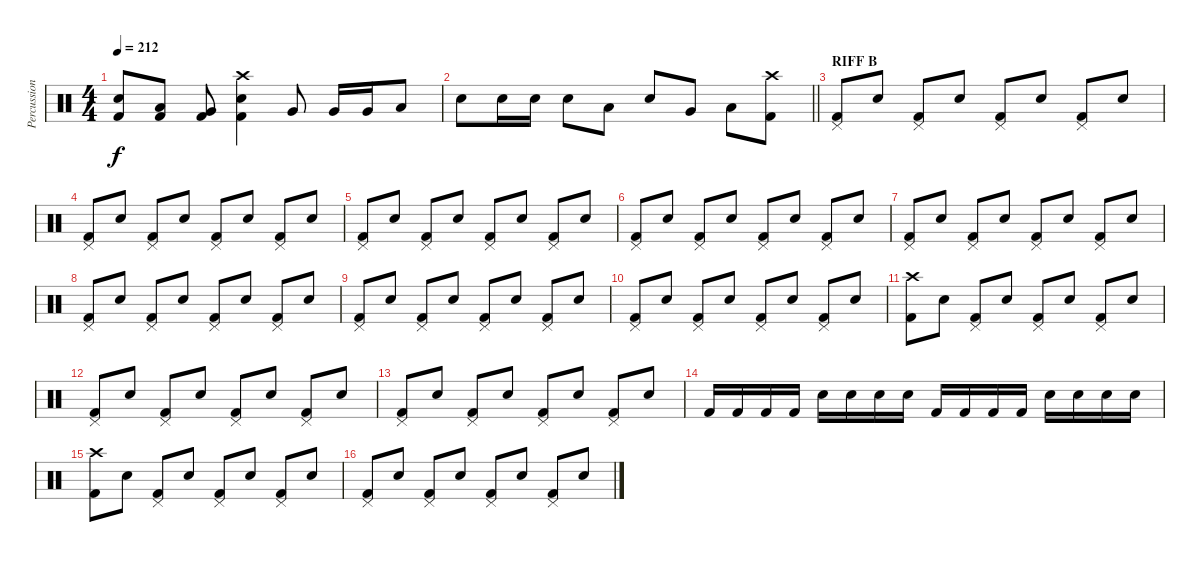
\track ("Percussions" "Percussion") {instrument percussion}
\staff {score}
\articulation defaults
\ts (4 4)
\tempo 212
\clef neutral
\ks c
("Snare (hit) 2" "Kick (hit) 2").8{dy f} ("Low Tom (hit)" "Kick (hit) 2").8 ("Very Low Tom (hit)" "Kick (hit) 2").8 ("Crash high (hit)" "Snare (hit) 2" "Kick (hit) 2").4 "Very Low Tom (hit)".8 "Very Low Tom (hit)".16 "Very Low Tom (hit)".16 "Low Floor Tom (hit)".8 |
\barLineRight lightlight "Snare (hit) 2".8 "Snare (hit) 2".16 "Snare (hit) 2".16 "Snare (hit) 2".8 "Low Tom (hit)".8 "Snare (hit) 2".8 "Very Low Tom (hit)".8 "Low Floor Tom (hit)".8
("Crash high (hit)" "Kick (hit) 2").8 |
\section ("" "RIFF B")
("Pedal Hi-Hat (hit)" "Kick (hit) 2").8 "Snare (hit) 2".8 ("Pedal Hi-Hat (hit)" "Kick (hit) 2").8 "Snare (hit) 2".8 ("Pedal Hi-Hat (hit)" "Kick (hit) 2").8 "Snare (hit) 2".8 ("Pedal Hi-Hat (hit)" "Kick (hit) 2").8 "Snare (hit) 2".8 |
("Pedal Hi-Hat (hit)" "Kick (hit) 2").8 "Snare (hit) 2".8 ("Pedal Hi-Hat (hit)" "Kick (hit) 2").8 "Snare (hit) 2".8 ("Pedal Hi-Hat (hit)" "Kick (hit) 2").8 "Snare (hit) 2".8 ("Pedal Hi-Hat (hit)" "Kick (hit) 2").8 "Snare (hit) 2".8 |
("Pedal Hi-Hat (hit)" "Kick (hit) 2").8 "Snare (hit) 2".8 ("Pedal Hi-Hat (hit)" "Kick (hit) 2").8 "Snare (hit) 2".8 ("Pedal Hi-Hat (hit)" "Kick (hit) 2").8 "Snare (hit) 2".8 ("Pedal Hi-Hat (hit)" "Kick (hit) 2").8 "Snare (hit) 2".8 |
("Pedal Hi-Hat (hit)" "Kick (hit) 2").8 "Snare (hit) 2".8 ("Pedal Hi-Hat (hit)" "Kick (hit) 2").8 "Snare (hit) 2".8 ("Pedal Hi-Hat (hit)" "Kick (hit) 2").8 "Snare (hit) 2".8 ("Pedal Hi-Hat (hit)" "Kick (hit) 2").8 "Snare (hit) 2".8 |
("Pedal Hi-Hat (hit)" "Kick (hit) 2").8 "Snare (hit) 2".8 ("Pedal Hi-Hat (hit)" "Kick (hit) 2").8 "Snare (hit) 2".8 ("Pedal Hi-Hat (hit)" "Kick (hit) 2").8 "Snare (hit) 2".8 ("Pedal Hi-Hat (hit)" "Kick (hit) 2").8 "Snare (hit) 2".8 |
("Pedal Hi-Hat (hit)" "Kick (hit) 2").8 "Snare (hit) 2".8 ("Pedal Hi-Hat (hit)" "Kick (hit) 2").8 "Snare (hit) 2".8 ("Pedal Hi-Hat (hit)" "Kick (hit) 2").8 "Snare (hit) 2".8 ("Pedal Hi-Hat (hit)" "Kick (hit) 2").8 "Snare (hit) 2".8 |
("Pedal Hi-Hat (hit)" "Kick (hit) 2").8 "Snare (hit) 2".8 ("Pedal Hi-Hat (hit)" "Kick (hit) 2").8 "Snare (hit) 2".8 ("Pedal Hi-Hat (hit)" "Kick (hit) 2").8 "Snare (hit) 2".8 ("Pedal Hi-Hat (hit)" "Kick (hit) 2").8 "Snare (hit) 2".8 |
("Pedal Hi-Hat (hit)" "Kick (hit) 2").8 "Snare (hit) 2".8 ("Pedal Hi-Hat (hit)" "Kick (hit) 2").8 "Snare (hit) 2".8 ("Pedal Hi-Hat (hit)" "Kick (hit) 2").8 "Snare (hit) 2".8 ("Pedal Hi-Hat (hit)" "Kick (hit) 2").8 "Snare (hit) 2".8 |
("Crash high (hit)" "Kick (hit) 2").8 "Snare (hit) 2".8 ("Pedal Hi-Hat (hit)" "Kick (hit) 2").8 "Snare (hit) 2".8 ("Pedal Hi-Hat (hit)" "Kick (hit) 2").8 "Snare (hit) 2".8 ("Pedal Hi-Hat (hit)" "Kick (hit) 2").8 "Snare (hit) 2".8 |
("Pedal Hi-Hat (hit)" "Kick (hit) 2").8 "Snare (hit) 2".8 ("Pedal Hi-Hat (hit)" "Kick (hit) 2").8 "Snare (hit) 2".8 ("Pedal Hi-Hat (hit)" "Kick (hit) 2").8 "Snare (hit) 2".8 ("Pedal Hi-Hat (hit)" "Kick (hit) 2").8 "Snare (hit) 2".8 |
("Pedal Hi-Hat (hit)" "Kick (hit) 2").8 "Snare (hit) 2".8 ("Pedal Hi-Hat (hit)" "Kick (hit) 2").8 "Snare (hit) 2".8 ("Pedal Hi-Hat (hit)" "Kick (hit) 2").8 "Snare (hit) 2".8 ("Pedal Hi-Hat (hit)" "Kick (hit) 2").8 "Snare (hit) 2".8 |
"Kick (hit) 2".16 "Kick (hit) 2".16 "Kick (hit) 2".16 "Kick (hit) 2".16 "Snare (hit) 2".16 "Snare (hit) 2".16 "Snare (hit) 2".16 "Snare (hit) 2".16 "Kick (hit) 2".16 "Kick (hit) 2".16 "Kick (hit) 2".16 "Kick (hit) 2".16 "Snare (hit) 2".16 "Snare (hit) 2".16 "Snare (hit) 2".16 "Snare (hit) 2".16 |
("Crash high (hit)" "Kick (hit) 2").8 "Snare (hit) 2".8 ("Pedal Hi-Hat (hit)" "Kick (hit) 2").8 "Snare (hit) 2".8 ("Pedal Hi-Hat (hit)" "Kick (hit) 2").8 "Snare (hit) 2".8 ("Pedal Hi-Hat (hit)" "Kick (hit) 2").8 "Snare (hit) 2".8 |
("Pedal Hi-Hat (hit)" "Kick (hit) 2").8 "Snare (hit) 2".8 ("Pedal Hi-Hat (hit)" "Kick (hit) 2").8 "Snare (hit) 2".8 ("Pedal Hi-Hat (hit)" "Kick (hit) 2").8 "Snare (hit) 2".8 ("Pedal Hi-Hat (hit)" "Kick (hit) 2").8 "Snare (hit) 2".8
